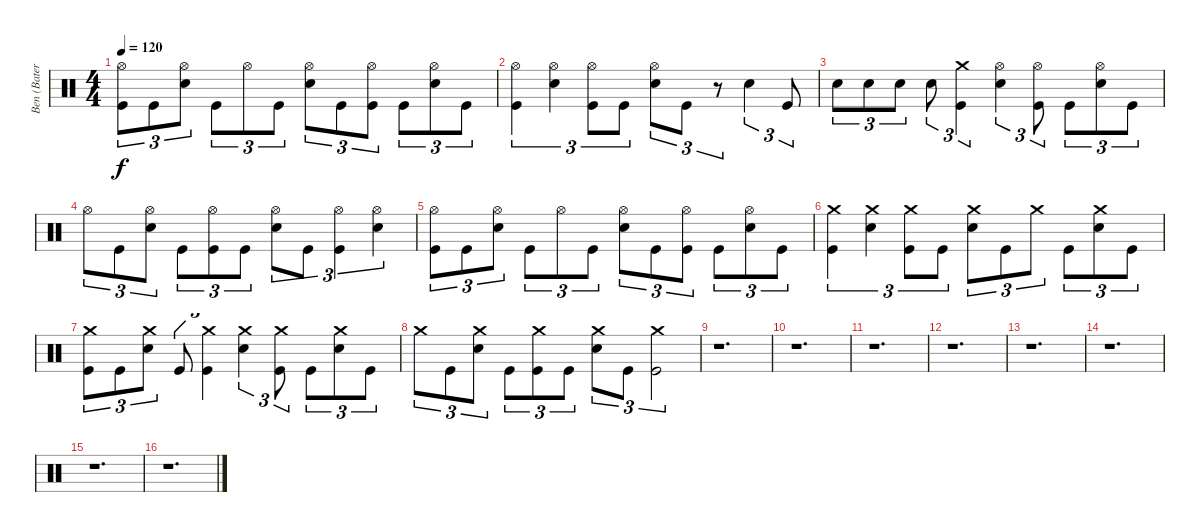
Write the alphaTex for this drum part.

\track ("Ben (Bateria)" "Ben (Bater") {instrument percussion}
\staff {score}
\articulation defaults
\ts (4 4)
\tempo 120
\clef neutral
\ks c
("Kick (hit)" "Hi-Hat (open)").8{tu (3 2) dy f} "Kick (hit)".8{tu (3 2)} ("Snare (hit) 2" "Hi-Hat (open)").8{tu (3 2)} "Kick (hit)".8{tu (3 2)} "Hi-Hat (open)".8{tu (3 2)} "Kick (hit)".8{tu (3 2)} ("Snare (hit) 2" "Hi-Hat (open)").8{tu (3 2)} "Kick (hit)".8{tu (3 2)} ("Kick (hit)" "Hi-Hat (open)").8{tu (3 2)} "Kick (hit)".8{tu (3 2)} ("Snare (hit) 2" "Hi-Hat (open)").8{tu (3 2)} "Kick (hit)".8{tu (3 2)} |
("Kick (hit)" "Hi-Hat (open)").4{tu (3 2)} ("Snare (hit) 2" "Hi-Hat (open)").4{tu (3 2)} ("Kick (hit)" "Hi-Hat (open)").8{tu (3 2)} "Kick (hit)".8{tu (3 2)} ("Snare (hit) 2" "Hi-Hat (open)").8{tu (3 2)} "Kick (hit)".8{tu (3 2)} r.8{tu (3 2)} "Snare (hit) 2".4{tu (3 2)} "Kick (hit)".8{tu (3 2)} |
"Snare (hit) 2".8{tu (3 2)} "Snare (hit) 2".8{tu (3 2)} "Snare (hit) 2".8{tu (3 2)} "Snare (hit) 2".8{tu (3 2)} ("Kick (hit)" "Crash medium (hit)").4{tu (3 2)} ("Snare (hit) 2" "Hi-Hat (open)").4{tu (3 2)} ("Kick (hit)" "Hi-Hat (open)").8{tu (3 2)} "Kick (hit)".8{tu (3 2)} ("Snare (hit) 2" "Hi-Hat (open)").8{tu (3 2)} "Kick (hit)".8{tu (3 2)} |
"Hi-Hat (open)".8{tu (3 2)} "Kick (hit)".8{tu (3 2)} ("Snare (hit) 2" "Hi-Hat (open)").8{tu (3 2)} "Kick (hit)".8{tu (3 2)} ("Kick (hit)" "Hi-Hat (open)").8{tu (3 2)} "Kick (hit)".8{tu (3 2)} ("Snare (hit) 2" "Hi-Hat (open)").8{tu (3 2)} "Kick (hit)".8{tu (3 2)} ("Kick (hit)" "Hi-Hat (open)").4{tu (3 2)} ("Snare (hit) 2" "Hi-Hat (open)").4{tu (3 2)} |
("Kick (hit)" "Hi-Hat (open)").8{tu (3 2)} "Kick (hit)".8{tu (3 2)} ("Snare (hit) 2" "Hi-Hat (open)").8{tu (3 2)} "Kick (hit)".8{tu (3 2)} "Hi-Hat (open)".8{tu (3 2)} "Kick (hit)".8{tu (3 2)} ("Snare (hit) 2" "Hi-Hat (open)").8{tu (3 2)} "Kick (hit)".8{tu (3 2)} ("Kick (hit)" "Hi-Hat (open)").8{tu (3 2)} "Kick (hit)".8{tu (3 2)} ("Snare (hit) 2" "Hi-Hat (open)").8{tu (3 2)} "Kick (hit)".8{tu (3 2)} |
("Kick (hit)" "Crash medium (hit)").4{tu (3 2)} ("Snare (hit) 2" "Crash medium (hit)").4{tu (3 2)} ("Kick (hit)" "Crash medium (hit)").8{tu (3 2)} "Kick (hit)".8{tu (3 2)} ("Snare (hit) 2" "Crash medium (hit)").8{tu (3 2)} "Kick (hit)".8{tu (3 2)} "Crash medium (hit)".8{tu (3 2)} "Kick (hit)".8{tu (3 2)} ("Snare (hit) 2" "Crash medium (hit)").8{tu (3 2)} "Kick (hit)".8{tu (3 2)} |
("Kick (hit)" "Crash medium (hit)").8{tu (3 2)} "Kick (hit)".8{tu (3 2)} ("Snare (hit) 2" "Crash medium (hit)").8{tu (3 2)} "Kick (hit)".8{tu (3 2)} ("Kick (hit)" "Crash medium (hit)").4{tu (3 2)} ("Snare (hit) 2" "Crash medium (hit)").4{tu (3 2)} ("Kick (hit)" "Crash medium (hit)").8{tu (3 2)} "Kick (hit)".8{tu (3 2)} ("Snare (hit) 2" "Crash medium (hit)").8{tu (3 2)} "Kick (hit)".8{tu (3 2)} |
"Crash medium (hit)".8{tu (3 2)} "Kick (hit)".8{tu (3 2)} ("Snare (hit) 2" "Crash medium (hit)").8{tu (3 2)} "Kick (hit)".8{tu (3 2)} ("Kick (hit)" "Crash medium (hit)").8{tu (3 2)} "Kick (hit)".8{tu (3 2)} ("Snare (hit) 2" "Crash medium (hit)").8{tu (3 2)} "Kick (hit)".8{tu (3 2)} ("Kick (hit)" "Crash medium (hit)").2{tu (3 2)} |
r.1{d tu (3 2)} |
r.1{d tu (3 2)} |
r.1{d tu (3 2)} |
r.1{d tu (3 2)} |
r.1{d tu (3 2)} |
r.1{d tu (3 2)} |
r.1{d tu (3 2)} |
r.1{d tu (3 2)}
